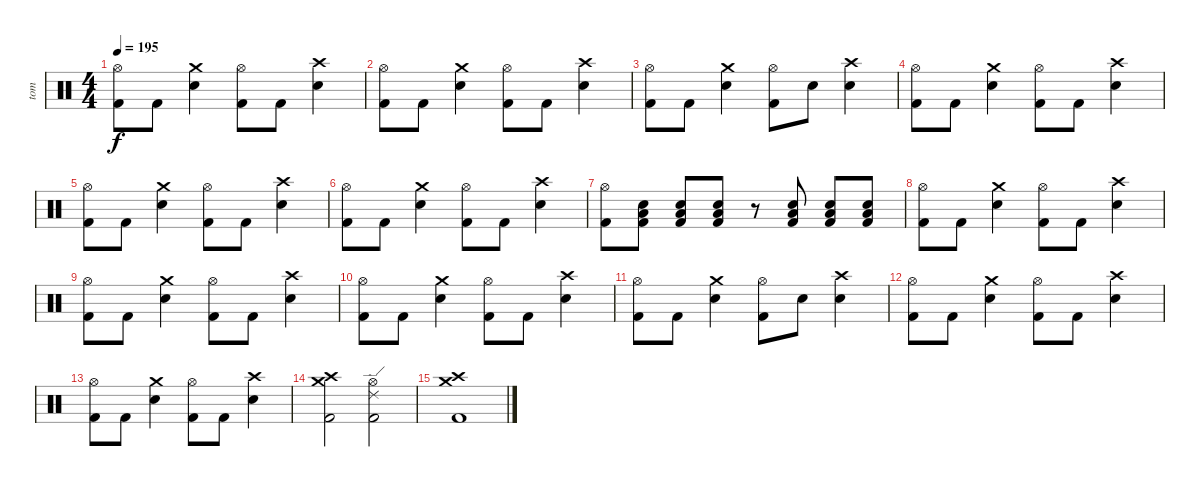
\track ("tom" "tom") {instrument percussion}
\staff {score}
\articulation defaults
\ts (4 4)
\tempo 195
\clef neutral
\ks c
("Hi-Hat (open)" "Kick (hit) 2").8{dy f} "Kick (hit) 2".8 ("Crash medium (hit)" "Electric Snare (hit)").4 ("Hi-Hat (open)" "Kick (hit) 2").8 "Kick (hit) 2".8 ("Crash high (hit)" "Electric Snare (hit)").4 |
("Hi-Hat (open)" "Kick (hit) 2").8 "Kick (hit) 2".8 ("Crash medium (hit)" "Electric Snare (hit)").4 ("Hi-Hat (open)" "Kick (hit) 2").8 "Kick (hit) 2".8 ("Crash high (hit)" "Electric Snare (hit)").4 |
("Hi-Hat (open)" "Kick (hit) 2").8 "Kick (hit) 2".8 ("Crash medium (hit)" "Electric Snare (hit)").4 ("Hi-Hat (open)" "Kick (hit) 2").8 "Electric Snare (hit)".8 ("Crash high (hit)" "Electric Snare (hit)").4 |
("Hi-Hat (open)" "Kick (hit) 2").8 "Kick (hit) 2".8 ("Crash medium (hit)" "Electric Snare (hit)").4 ("Hi-Hat (open)" "Kick (hit) 2").8 "Kick (hit) 2".8 ("Crash high (hit)" "Electric Snare (hit)").4 |
("Hi-Hat (open)" "Kick (hit) 2").8 "Kick (hit) 2".8 ("Crash medium (hit)" "Electric Snare (hit)").4 ("Hi-Hat (open)" "Kick (hit) 2").8 "Kick (hit) 2".8 ("Crash high (hit)" "Electric Snare (hit)").4 |
("Hi-Hat (open)" "Kick (hit) 2").8 "Kick (hit) 2".8 ("Crash medium (hit)" "Electric Snare (hit)").4 ("Hi-Hat (open)" "Kick (hit) 2").8 "Kick (hit) 2".8 ("Crash high (hit)" "Electric Snare (hit)").4 |
("Hi-Hat (open)" "Kick (hit) 2").8 ("Electric Snare (hit)" "Low Tom (hit)" "Kick (hit) 2").8 ("Electric Snare (hit)" "Low Tom (hit)" "Kick (hit) 2").8 ("Electric Snare (hit)" "Low Tom (hit)" "Kick (hit) 2").8 r.8 ("Electric Snare (hit)" "Low Tom (hit)" "Kick (hit) 2").8 ("Electric Snare (hit)" "Low Tom (hit)" "Kick (hit) 2").8 ("Electric Snare (hit)" "Low Tom (hit)" "Kick (hit) 2").8 |
("Hi-Hat (open)" "Kick (hit) 2").8 "Kick (hit) 2".8 ("Crash medium (hit)" "Electric Snare (hit)").4 ("Hi-Hat (open)" "Kick (hit) 2").8 "Kick (hit) 2".8 ("Crash high (hit)" "Electric Snare (hit)").4 |
("Hi-Hat (open)" "Kick (hit) 2").8 "Kick (hit) 2".8 ("Crash medium (hit)" "Electric Snare (hit)").4 ("Hi-Hat (open)" "Kick (hit) 2").8 "Kick (hit) 2".8 ("Crash high (hit)" "Electric Snare (hit)").4 |
("Hi-Hat (open)" "Kick (hit) 2").8 "Kick (hit) 2".8 ("Crash medium (hit)" "Electric Snare (hit)").4 ("Hi-Hat (open)" "Kick (hit) 2").8 "Kick (hit) 2".8 ("Crash high (hit)" "Electric Snare (hit)").4 |
("Hi-Hat (open)" "Kick (hit) 2").8 "Kick (hit) 2".8 ("Crash medium (hit)" "Electric Snare (hit)").4 ("Hi-Hat (open)" "Kick (hit) 2").8 "Electric Snare (hit)".8 ("Crash high (hit)" "Electric Snare (hit)").4 |
("Hi-Hat (open)" "Kick (hit) 2").8 "Kick (hit) 2".8 ("Crash medium (hit)" "Electric Snare (hit)").4 ("Hi-Hat (open)" "Kick (hit) 2").8 "Kick (hit) 2".8 ("Crash high (hit)" "Electric Snare (hit)").4 |
("Hi-Hat (open)" "Kick (hit) 2").8 "Kick (hit) 2".8 ("Crash medium (hit)" "Electric Snare (hit)").4 ("Hi-Hat (open)" "Kick (hit) 2").8 "Kick (hit) 2".8 ("Crash high (hit)" "Electric Snare (hit)").4 |
("Crash high (hit)" "Crash medium (hit)" "Kick (hit) 2").2 ("Ride (edge) 2" "Hi-Hat (open)" "Kick (hit) 2").2 |
("Crash high (hit)" "Crash medium (hit)" "Kick (hit) 2").1
